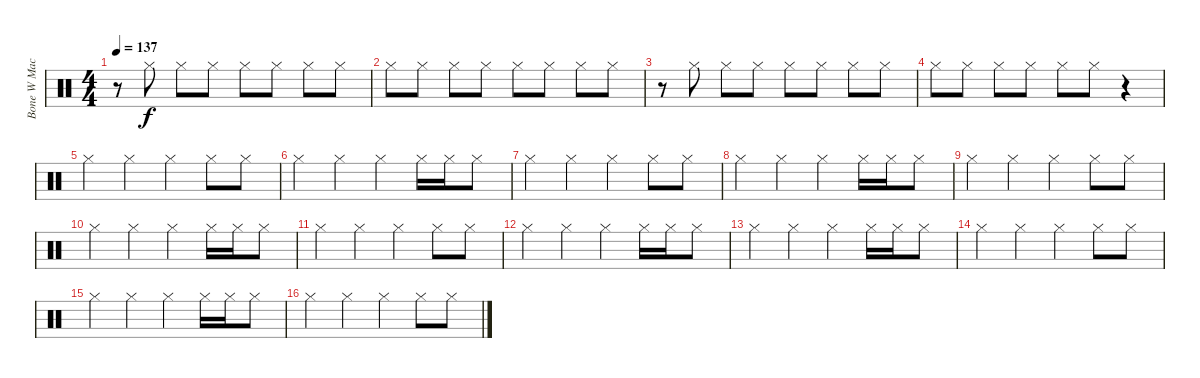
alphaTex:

\track ("Bone W Machine Cimbals" "Bone W Mac") {instrument percussion}
\staff {score}
\articulation defaults
\ts (4 4)
\tempo 137
\clef neutral
\ks c
r.8{dy f} "Hi-Hat (closed)".8 "Hi-Hat (closed)".8 "Hi-Hat (closed)".8 "Hi-Hat (closed)".8 "Hi-Hat (closed)".8 "Hi-Hat (closed)".8 "Hi-Hat (closed)".8 |
"Hi-Hat (closed)".8 "Hi-Hat (closed)".8 "Hi-Hat (closed)".8 "Hi-Hat (closed)".8 "Hi-Hat (closed)".8 "Hi-Hat (closed)".8 "Hi-Hat (closed)".8 "Hi-Hat (closed)".8 |
r.8 "Hi-Hat (closed)".8 "Hi-Hat (closed)".8 "Hi-Hat (closed)".8 "Hi-Hat (closed)".8 "Hi-Hat (closed)".8 "Hi-Hat (closed)".8 "Hi-Hat (closed)".8 |
"Hi-Hat (closed)".8 "Hi-Hat (closed)".8 "Hi-Hat (closed)".8 "Hi-Hat (closed)".8 "Hi-Hat (closed)".8 "Hi-Hat (closed)".8 r.4 |
"Hi-Hat (closed)".4 "Hi-Hat (closed)".4 "Hi-Hat (closed)".4 "Hi-Hat (closed)".8 "Hi-Hat (closed)".8 |
"Hi-Hat (closed)".4 "Hi-Hat (closed)".4 "Hi-Hat (closed)".4 "Hi-Hat (closed)".16 "Hi-Hat (closed)".16 "Hi-Hat (closed)".8 |
"Hi-Hat (closed)".4 "Hi-Hat (closed)".4 "Hi-Hat (closed)".4 "Hi-Hat (closed)".8 "Hi-Hat (closed)".8 |
"Hi-Hat (closed)".4 "Hi-Hat (closed)".4 "Hi-Hat (closed)".4 "Hi-Hat (closed)".16 "Hi-Hat (closed)".16 "Hi-Hat (closed)".8 |
"Hi-Hat (closed)".4 "Hi-Hat (closed)".4 "Hi-Hat (closed)".4 "Hi-Hat (closed)".8 "Hi-Hat (closed)".8 |
"Hi-Hat (closed)".4 "Hi-Hat (closed)".4 "Hi-Hat (closed)".4 "Hi-Hat (closed)".16 "Hi-Hat (closed)".16 "Hi-Hat (closed)".8 |
"Hi-Hat (closed)".4 "Hi-Hat (closed)".4 "Hi-Hat (closed)".4 "Hi-Hat (closed)".8 "Hi-Hat (closed)".8 |
"Hi-Hat (closed)".4 "Hi-Hat (closed)".4 "Hi-Hat (closed)".4 "Hi-Hat (closed)".16 "Hi-Hat (closed)".16 "Hi-Hat (closed)".8 |
"Hi-Hat (closed)".4 "Hi-Hat (closed)".4 "Hi-Hat (closed)".4 "Hi-Hat (closed)".16 "Hi-Hat (closed)".16 "Hi-Hat (closed)".8 |
"Hi-Hat (closed)".4 "Hi-Hat (closed)".4 "Hi-Hat (closed)".4 "Hi-Hat (closed)".8 "Hi-Hat (closed)".8 |
"Hi-Hat (closed)".4 "Hi-Hat (closed)".4 "Hi-Hat (closed)".4 "Hi-Hat (closed)".16 "Hi-Hat (closed)".16 "Hi-Hat (closed)".8 |
"Hi-Hat (closed)".4 "Hi-Hat (closed)".4 "Hi-Hat (closed)".4 "Hi-Hat (closed)".8 "Hi-Hat (closed)".8
